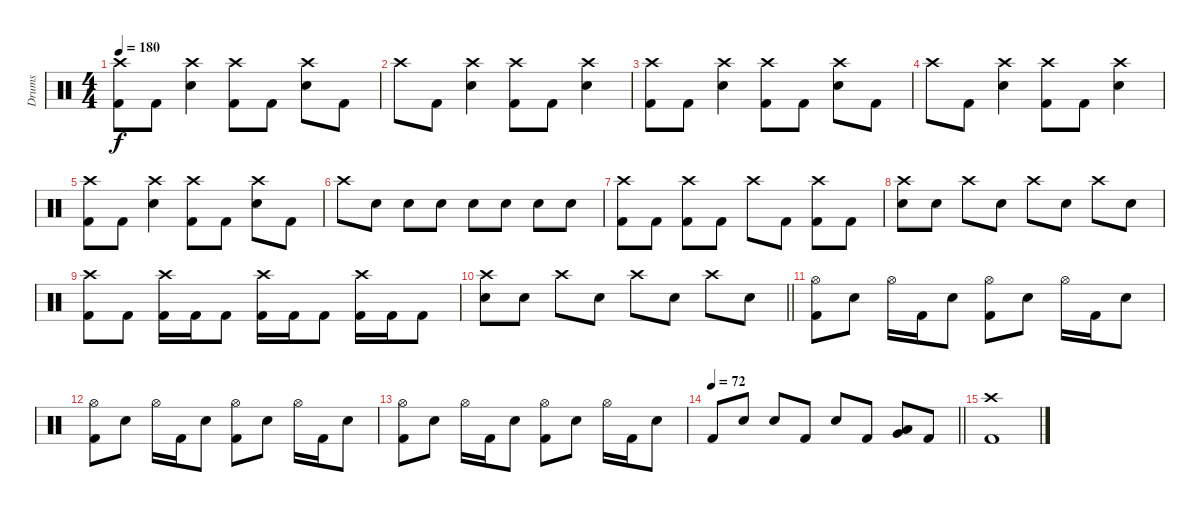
\track ("Drums" "Drums") {instrument percussion}
\staff {score}
\articulation defaults
\ts (4 4)
\tempo 180
\clef neutral
\ks c
("Crash high (hit)" "Kick (hit) 2").8{dy f} "Kick (hit) 2".8 ("Crash high (hit)" "Snare (hit) 2").4 ("Crash high (hit)" "Kick (hit) 2").8 "Kick (hit) 2".8 ("Crash high (hit)" "Snare (hit) 2").8 "Kick (hit) 2".8 |
"Crash high (hit)".8 "Kick (hit) 2".8 ("Crash high (hit)" "Snare (hit) 2").4 ("Crash high (hit)" "Kick (hit) 2").8 "Kick (hit) 2".8 ("Crash high (hit)" "Snare (hit) 2").4 |
("Crash high (hit)" "Kick (hit) 2").8 "Kick (hit) 2".8 ("Crash high (hit)" "Snare (hit) 2").4 ("Crash high (hit)" "Kick (hit) 2").8 "Kick (hit) 2".8 ("Crash high (hit)" "Snare (hit) 2").8 "Kick (hit) 2".8 |
"Crash high (hit)".8 "Kick (hit) 2".8 ("Crash high (hit)" "Snare (hit) 2").4 ("Crash high (hit)" "Kick (hit) 2").8 "Kick (hit) 2".8 ("Crash high (hit)" "Snare (hit) 2").4 |
("Crash high (hit)" "Kick (hit) 2").8 "Kick (hit) 2".8 ("Crash high (hit)" "Snare (hit) 2").4 ("Crash high (hit)" "Kick (hit) 2").8 "Kick (hit) 2".8 ("Crash high (hit)" "Snare (hit) 2").8 "Kick (hit) 2".8 |
"Crash high (hit)".8 "Snare (hit) 2".8 "Snare (hit) 2".8 "Snare (hit) 2".8 "Snare (hit) 2".8 "Snare (hit) 2".8 "Snare (hit) 2".8 "Snare (hit) 2".8 |
("Crash high (hit)" "Kick (hit) 2").8 "Kick (hit) 2".8 ("Crash high (hit)" "Kick (hit) 2").8 "Kick (hit) 2".8 "Crash high (hit)".8 "Kick (hit) 2".8 ("Crash high (hit)" "Kick (hit) 2").8 "Kick (hit) 2".8 |
("Crash high (hit)" "Snare (hit) 2").8 "Snare (hit) 2".8 "Crash high (hit)".8 "Snare (hit) 2".8 "Crash high (hit)".8 "Snare (hit) 2".8 "Crash high (hit)".8 "Snare (hit) 2".8 |
("Crash high (hit)" "Kick (hit) 2").8 "Kick (hit) 2".8 ("Crash high (hit)" "Kick (hit) 2").16 "Kick (hit) 2".16 "Kick (hit) 2".8 ("Crash high (hit)" "Kick (hit) 2").16 "Kick (hit) 2".16 "Kick (hit) 2".8 ("Crash high (hit)" "Kick (hit) 2").16 "Kick (hit) 2".16 "Kick (hit) 2".8 |
\barLineRight lightlight
("Crash high (hit)" "Snare (hit) 2").8 "Snare (hit) 2".8 "Crash high (hit)".8 "Snare (hit) 2".8 "Crash high (hit)".8 "Snare (hit) 2".8 "Crash high (hit)".8 "Snare (hit) 2".8 |
("Hi-Hat (open)" "Kick (hit) 2").8 "Snare (hit) 2".8 "Hi-Hat (open)".16 "Kick (hit) 2".16 "Snare (hit) 2".8 ("Hi-Hat (open)" "Kick (hit) 2").8 "Snare (hit) 2".8 "Hi-Hat (open)".16 "Kick (hit) 2".16 "Snare (hit) 2".8 |
("Hi-Hat (open)" "Kick (hit) 2").8 "Snare (hit) 2".8 "Hi-Hat (open)".16 "Kick (hit) 2".16 "Snare (hit) 2".8 ("Hi-Hat (open)" "Kick (hit) 2").8 "Snare (hit) 2".8 "Hi-Hat (open)".16 "Kick (hit) 2".16 "Snare (hit) 2".8 |
("Hi-Hat (open)" "Kick (hit) 2").8 "Snare (hit) 2".8 "Hi-Hat (open)".16 "Kick (hit) 2".16 "Snare (hit) 2".8 ("Hi-Hat (open)" "Kick (hit) 2").8 "Snare (hit) 2".8 "Hi-Hat (open)".16 "Kick (hit) 2".16 "Snare (hit) 2".8 |
\tempo 72
\barLineRight lightlight "Kick (hit) 2".8 "Snare (hit) 2".8 "Snare (hit) 2".8 "Kick (hit) 2".8 "Snare (hit) 2".8 "Kick (hit) 2".8
("Low Tom (hit)" "Very Low Tom (hit)").8 "Kick (hit) 2".8 |
("Crash high (hit)" "Kick (hit) 2").1
